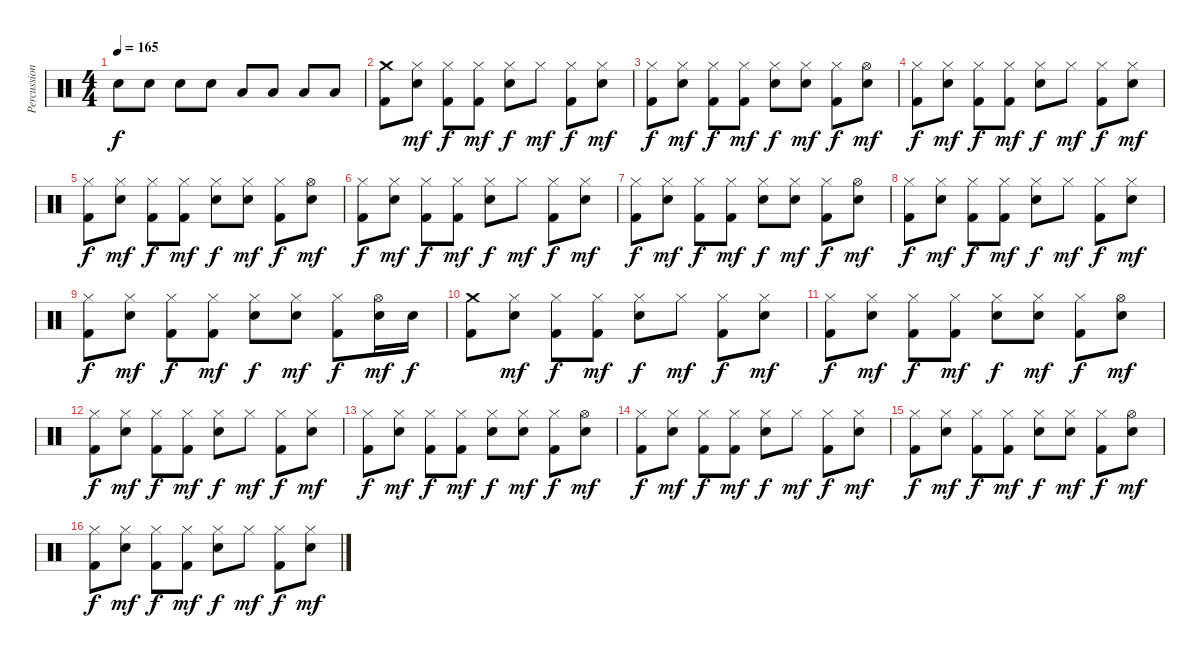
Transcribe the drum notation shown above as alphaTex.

\track ("Percussion" "Percussion") {instrument percussion}
\staff {score}
\articulation defaults
\ts (4 4)
\tempo 165
\clef neutral
\ks c "Snare (hit) 2".8{dy f} "Snare (hit) 2".8 "Snare (hit) 2".8 "Snare (hit) 2".8 "Low Tom (hit)".8 "Low Tom (hit)".8 "Low Tom (hit)".8 "Low Tom (hit)".8
|
("Crash medium (hit)" "Kick (hit) 2").8 ("Hi-Hat (closed)" "Snare (hit) 2").8{dy mf} ("Hi-Hat (closed)" "Kick (hit) 2").8{dy f} ("Hi-Hat (closed)" "Kick (hit) 2").8{dy mf} ("Hi-Hat (closed)" "Snare (hit) 2").8{dy f} "Hi-Hat (closed)".8{dy mf} ("Hi-Hat (closed)" "Kick (hit) 2").8{dy f} ("Hi-Hat (closed)" "Snare (hit) 2").8{dy mf} |
("Hi-Hat (closed)" "Kick (hit) 2").8{dy f} ("Hi-Hat (closed)" "Snare (hit) 2").8{dy mf} ("Hi-Hat (closed)" "Kick (hit) 2").8{dy f} ("Hi-Hat (closed)" "Kick (hit) 2").8{dy mf} ("Hi-Hat (closed)" "Snare (hit) 2").8{dy f} ("Hi-Hat (closed)" "Snare (hit) 2").8{dy mf} ("Hi-Hat (closed)" "Kick (hit) 2").8{dy f} ("Hi-Hat (open)" "Snare (hit) 2").8{dy mf} |
("Hi-Hat (closed)" "Kick (hit) 2").8{dy f} ("Hi-Hat (closed)" "Snare (hit) 2").8{dy mf} ("Hi-Hat (closed)" "Kick (hit) 2").8{dy f} ("Hi-Hat (closed)" "Kick (hit) 2").8{dy mf} ("Hi-Hat (closed)" "Snare (hit) 2").8{dy f} "Hi-Hat (closed)".8{dy mf} ("Hi-Hat (closed)" "Kick (hit) 2").8{dy f} ("Hi-Hat (closed)" "Snare (hit) 2").8{dy mf} |
("Hi-Hat (closed)" "Kick (hit) 2").8{dy f} ("Hi-Hat (closed)" "Snare (hit) 2").8{dy mf} ("Hi-Hat (closed)" "Kick (hit) 2").8{dy f} ("Hi-Hat (closed)" "Kick (hit) 2").8{dy mf} ("Hi-Hat (closed)" "Snare (hit) 2").8{dy f} ("Hi-Hat (closed)" "Snare (hit) 2").8{dy mf} ("Hi-Hat (closed)" "Kick (hit) 2").8{dy f} ("Hi-Hat (open)" "Snare (hit) 2").8{dy mf} |
("Hi-Hat (closed)" "Kick (hit) 2").8{dy f} ("Hi-Hat (closed)" "Snare (hit) 2").8{dy mf} ("Hi-Hat (closed)" "Kick (hit) 2").8{dy f} ("Hi-Hat (closed)" "Kick (hit) 2").8{dy mf} ("Hi-Hat (closed)" "Snare (hit) 2").8{dy f} "Hi-Hat (closed)".8{dy mf} ("Hi-Hat (closed)" "Kick (hit) 2").8{dy f} ("Hi-Hat (closed)" "Snare (hit) 2").8{dy mf} |
("Hi-Hat (closed)" "Kick (hit) 2").8{dy f} ("Hi-Hat (closed)" "Snare (hit) 2").8{dy mf} ("Hi-Hat (closed)" "Kick (hit) 2").8{dy f} ("Hi-Hat (closed)" "Kick (hit) 2").8{dy mf} ("Hi-Hat (closed)" "Snare (hit) 2").8{dy f} ("Hi-Hat (closed)" "Snare (hit) 2").8{dy mf} ("Hi-Hat (closed)" "Kick (hit) 2").8{dy f} ("Hi-Hat (open)" "Snare (hit) 2").8{dy mf} |
("Hi-Hat (closed)" "Kick (hit) 2").8{dy f} ("Hi-Hat (closed)" "Snare (hit) 2").8{dy mf} ("Hi-Hat (closed)" "Kick (hit) 2").8{dy f} ("Hi-Hat (closed)" "Kick (hit) 2").8{dy mf} ("Hi-Hat (closed)" "Snare (hit) 2").8{dy f} "Hi-Hat (closed)".8{dy mf} ("Hi-Hat (closed)" "Kick (hit) 2").8{dy f} ("Hi-Hat (closed)" "Snare (hit) 2").8{dy mf} |
("Hi-Hat (closed)" "Kick (hit) 2").8{dy f} ("Hi-Hat (closed)" "Snare (hit) 2").8{dy mf} ("Hi-Hat (closed)" "Kick (hit) 2").8{dy f} ("Hi-Hat (closed)" "Kick (hit) 2").8{dy mf} ("Hi-Hat (closed)" "Snare (hit) 2").8{dy f} ("Hi-Hat (closed)" "Snare (hit) 2").8{dy mf} ("Hi-Hat (closed)" "Kick (hit) 2").8{dy f} ("Hi-Hat (open)" "Snare (hit) 2").16{dy mf} "Snare (hit) 2".16{dy f} |
("Crash medium (hit)" "Kick (hit) 2").8 ("Hi-Hat (closed)" "Snare (hit) 2").8{dy mf} ("Hi-Hat (closed)" "Kick (hit) 2").8{dy f} ("Hi-Hat (closed)" "Kick (hit) 2").8{dy mf} ("Hi-Hat (closed)" "Snare (hit) 2").8{dy f} "Hi-Hat (closed)".8{dy mf} ("Hi-Hat (closed)" "Kick (hit) 2").8{dy f} ("Hi-Hat (closed)" "Snare (hit) 2").8{dy mf} |
("Hi-Hat (closed)" "Kick (hit) 2").8{dy f} ("Hi-Hat (closed)" "Snare (hit) 2").8{dy mf} ("Hi-Hat (closed)" "Kick (hit) 2").8{dy f} ("Hi-Hat (closed)" "Kick (hit) 2").8{dy mf} ("Hi-Hat (closed)" "Snare (hit) 2").8{dy f} ("Hi-Hat (closed)" "Snare (hit) 2").8{dy mf} ("Hi-Hat (closed)" "Kick (hit) 2").8{dy f} ("Hi-Hat (open)" "Snare (hit) 2").8{dy mf} |
("Hi-Hat (closed)" "Kick (hit) 2").8{dy f} ("Hi-Hat (closed)" "Snare (hit) 2").8{dy mf} ("Hi-Hat (closed)" "Kick (hit) 2").8{dy f} ("Hi-Hat (closed)" "Kick (hit) 2").8{dy mf} ("Hi-Hat (closed)" "Snare (hit) 2").8{dy f} "Hi-Hat (closed)".8{dy mf} ("Hi-Hat (closed)" "Kick (hit) 2").8{dy f} ("Hi-Hat (closed)" "Snare (hit) 2").8{dy mf} |
("Hi-Hat (closed)" "Kick (hit) 2").8{dy f} ("Hi-Hat (closed)" "Snare (hit) 2").8{dy mf} ("Hi-Hat (closed)" "Kick (hit) 2").8{dy f} ("Hi-Hat (closed)" "Kick (hit) 2").8{dy mf} ("Hi-Hat (closed)" "Snare (hit) 2").8{dy f} ("Hi-Hat (closed)" "Snare (hit) 2").8{dy mf} ("Hi-Hat (closed)" "Kick (hit) 2").8{dy f} ("Hi-Hat (open)" "Snare (hit) 2").8{dy mf} |
("Hi-Hat (closed)" "Kick (hit) 2").8{dy f} ("Hi-Hat (closed)" "Snare (hit) 2").8{dy mf} ("Hi-Hat (closed)" "Kick (hit) 2").8{dy f} ("Hi-Hat (closed)" "Kick (hit) 2").8{dy mf} ("Hi-Hat (closed)" "Snare (hit) 2").8{dy f} "Hi-Hat (closed)".8{dy mf} ("Hi-Hat (closed)" "Kick (hit) 2").8{dy f} ("Hi-Hat (closed)" "Snare (hit) 2").8{dy mf} |
("Hi-Hat (closed)" "Kick (hit) 2").8{dy f} ("Hi-Hat (closed)" "Snare (hit) 2").8{dy mf} ("Hi-Hat (closed)" "Kick (hit) 2").8{dy f} ("Hi-Hat (closed)" "Kick (hit) 2").8{dy mf} ("Hi-Hat (closed)" "Snare (hit) 2").8{dy f} ("Hi-Hat (closed)" "Snare (hit) 2").8{dy mf} ("Hi-Hat (closed)" "Kick (hit) 2").8{dy f} ("Hi-Hat (open)" "Snare (hit) 2").8{dy mf} |
("Hi-Hat (closed)" "Kick (hit) 2").8{dy f} ("Hi-Hat (closed)" "Snare (hit) 2").8{dy mf} ("Hi-Hat (closed)" "Kick (hit) 2").8{dy f} ("Hi-Hat (closed)" "Kick (hit) 2").8{dy mf} ("Hi-Hat (closed)" "Snare (hit) 2").8{dy f} "Hi-Hat (closed)".8{dy mf} ("Hi-Hat (closed)" "Kick (hit) 2").8{dy f} ("Hi-Hat (closed)" "Snare (hit) 2").8{dy mf}
